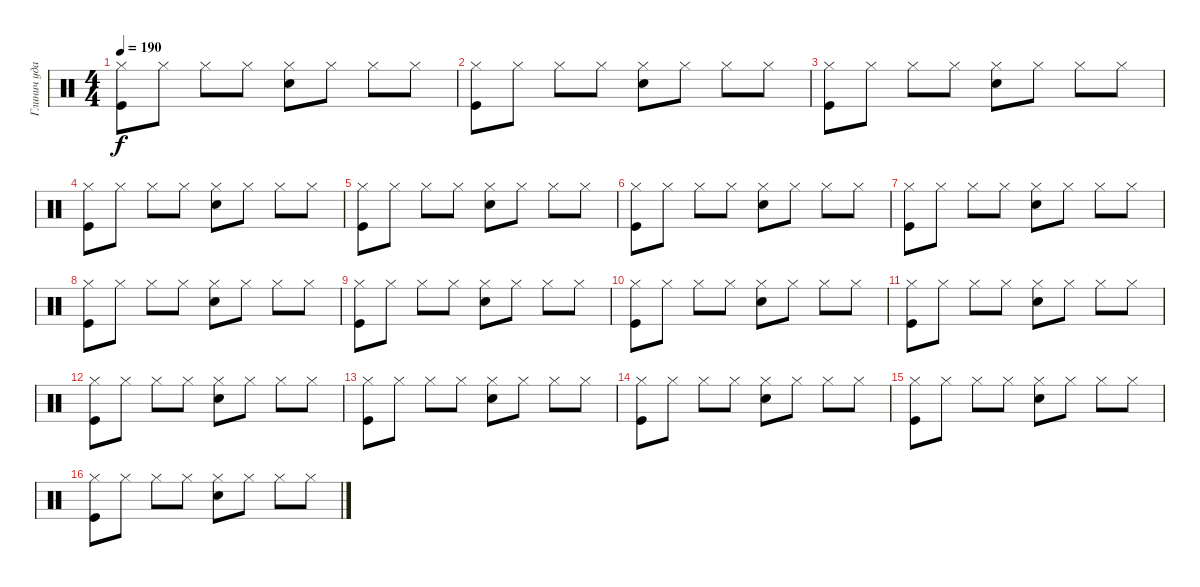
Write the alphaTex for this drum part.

\track ("Глинич ударные" "Глинич уда") {instrument percussion}
\staff {score}
\articulation defaults
\ts (4 4)
\tempo 190
\clef neutral
\ks c
("Hi-Hat (closed)" "Kick (hit)").8{dy f} "Hi-Hat (closed)".8 "Hi-Hat (closed)".8 "Hi-Hat (closed)".8 ("Hi-Hat (closed)" "Snare (hit) 2").8 "Hi-Hat (closed)".8 "Hi-Hat (closed)".8 "Hi-Hat (closed)".8 |
("Hi-Hat (closed)" "Kick (hit)").8 "Hi-Hat (closed)".8 "Hi-Hat (closed)".8 "Hi-Hat (closed)".8 ("Hi-Hat (closed)" "Snare (hit) 2").8 "Hi-Hat (closed)".8 "Hi-Hat (closed)".8 "Hi-Hat (closed)".8 |
("Hi-Hat (closed)" "Kick (hit)").8 "Hi-Hat (closed)".8 "Hi-Hat (closed)".8 "Hi-Hat (closed)".8 ("Hi-Hat (closed)" "Snare (hit) 2").8 "Hi-Hat (closed)".8 "Hi-Hat (closed)".8 "Hi-Hat (closed)".8 |
("Hi-Hat (closed)" "Kick (hit)").8 "Hi-Hat (closed)".8 "Hi-Hat (closed)".8 "Hi-Hat (closed)".8 ("Hi-Hat (closed)" "Snare (hit) 2").8 "Hi-Hat (closed)".8 "Hi-Hat (closed)".8 "Hi-Hat (closed)".8 |
("Hi-Hat (closed)" "Kick (hit)").8 "Hi-Hat (closed)".8 "Hi-Hat (closed)".8 "Hi-Hat (closed)".8 ("Hi-Hat (closed)" "Snare (hit) 2").8 "Hi-Hat (closed)".8 "Hi-Hat (closed)".8 "Hi-Hat (closed)".8 |
("Hi-Hat (closed)" "Kick (hit)").8 "Hi-Hat (closed)".8 "Hi-Hat (closed)".8 "Hi-Hat (closed)".8 ("Hi-Hat (closed)" "Snare (hit) 2").8 "Hi-Hat (closed)".8 "Hi-Hat (closed)".8 "Hi-Hat (closed)".8 |
("Hi-Hat (closed)" "Kick (hit)").8 "Hi-Hat (closed)".8 "Hi-Hat (closed)".8 "Hi-Hat (closed)".8 ("Hi-Hat (closed)" "Snare (hit) 2").8 "Hi-Hat (closed)".8 "Hi-Hat (closed)".8 "Hi-Hat (closed)".8 |
("Hi-Hat (closed)" "Kick (hit)").8 "Hi-Hat (closed)".8 "Hi-Hat (closed)".8 "Hi-Hat (closed)".8 ("Hi-Hat (closed)" "Snare (hit) 2").8 "Hi-Hat (closed)".8 "Hi-Hat (closed)".8 "Hi-Hat (closed)".8 |
("Hi-Hat (closed)" "Kick (hit)").8 "Hi-Hat (closed)".8 "Hi-Hat (closed)".8 "Hi-Hat (closed)".8 ("Hi-Hat (closed)" "Snare (hit) 2").8 "Hi-Hat (closed)".8 "Hi-Hat (closed)".8 "Hi-Hat (closed)".8 |
("Hi-Hat (closed)" "Kick (hit)").8 "Hi-Hat (closed)".8 "Hi-Hat (closed)".8 "Hi-Hat (closed)".8 ("Hi-Hat (closed)" "Snare (hit) 2").8 "Hi-Hat (closed)".8 "Hi-Hat (closed)".8 "Hi-Hat (closed)".8 |
("Hi-Hat (closed)" "Kick (hit)").8 "Hi-Hat (closed)".8 "Hi-Hat (closed)".8 "Hi-Hat (closed)".8 ("Hi-Hat (closed)" "Snare (hit) 2").8 "Hi-Hat (closed)".8 "Hi-Hat (closed)".8 "Hi-Hat (closed)".8 |
("Hi-Hat (closed)" "Kick (hit)").8 "Hi-Hat (closed)".8 "Hi-Hat (closed)".8 "Hi-Hat (closed)".8 ("Hi-Hat (closed)" "Snare (hit) 2").8 "Hi-Hat (closed)".8 "Hi-Hat (closed)".8 "Hi-Hat (closed)".8 |
("Hi-Hat (closed)" "Kick (hit)").8 "Hi-Hat (closed)".8 "Hi-Hat (closed)".8 "Hi-Hat (closed)".8 ("Hi-Hat (closed)" "Snare (hit) 2").8 "Hi-Hat (closed)".8 "Hi-Hat (closed)".8 "Hi-Hat (closed)".8 |
("Hi-Hat (closed)" "Kick (hit)").8 "Hi-Hat (closed)".8 "Hi-Hat (closed)".8 "Hi-Hat (closed)".8 ("Hi-Hat (closed)" "Snare (hit) 2").8 "Hi-Hat (closed)".8 "Hi-Hat (closed)".8 "Hi-Hat (closed)".8 |
("Hi-Hat (closed)" "Kick (hit)").8 "Hi-Hat (closed)".8 "Hi-Hat (closed)".8 "Hi-Hat (closed)".8 ("Hi-Hat (closed)" "Snare (hit) 2").8 "Hi-Hat (closed)".8 "Hi-Hat (closed)".8 "Hi-Hat (closed)".8 |
("Hi-Hat (closed)" "Kick (hit)").8 "Hi-Hat (closed)".8 "Hi-Hat (closed)".8 "Hi-Hat (closed)".8 ("Hi-Hat (closed)" "Snare (hit) 2").8 "Hi-Hat (closed)".8 "Hi-Hat (closed)".8 "Hi-Hat (closed)".8
